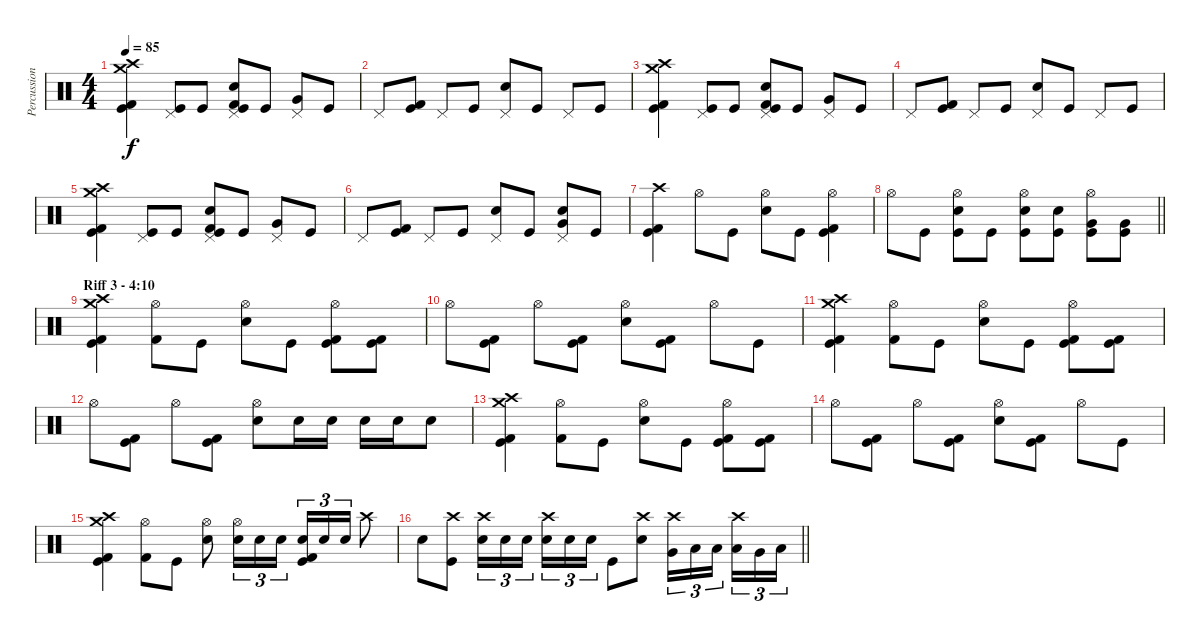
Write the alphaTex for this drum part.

\track ("Percussion" "Percussion") {instrument percussion}
\staff {score}
\articulation defaults
\ts (4 4)
\tempo 85
\clef neutral
\ks c
("Kick (hit)" "Kick (hit) 2" "Crash high (hit)" "Crash medium (hit)").4{dy f} ("Kick (hit)" "Pedal Hi-Hat (hit)").8 "Kick (hit)".8 ("Kick (hit)" "Kick (hit) 2" "Snare (hit) 2" "Pedal Hi-Hat (hit)").8 "Kick (hit)".8 ("Very Low Tom (hit)" "Pedal Hi-Hat (hit)").8 "Kick (hit)".8 |
"Pedal Hi-Hat (hit)".8 ("Kick (hit)" "Kick (hit) 2").8 "Pedal Hi-Hat (hit)".8 "Kick (hit)".8 ("Snare (hit) 2" "Pedal Hi-Hat (hit)").8 "Kick (hit)".8 "Pedal Hi-Hat (hit)".8 "Kick (hit)".8 |
("Kick (hit)" "Kick (hit) 2" "Crash high (hit)" "Crash medium (hit)").4 ("Kick (hit)" "Pedal Hi-Hat (hit)").8 "Kick (hit)".8 ("Kick (hit)" "Kick (hit) 2" "Snare (hit) 2" "Pedal Hi-Hat (hit)").8 "Kick (hit)".8 ("Very Low Tom (hit)" "Pedal Hi-Hat (hit)").8 "Kick (hit)".8 |
"Pedal Hi-Hat (hit)".8 ("Kick (hit)" "Kick (hit) 2").8 "Pedal Hi-Hat (hit)".8 "Kick (hit)".8 ("Snare (hit) 2" "Pedal Hi-Hat (hit)").8 "Kick (hit)".8 "Pedal Hi-Hat (hit)".8 "Kick (hit)".8 |
("Kick (hit)" "Kick (hit) 2" "Crash high (hit)" "Crash medium (hit)").4 ("Kick (hit)" "Pedal Hi-Hat (hit)").8 "Kick (hit)".8 ("Kick (hit)" "Kick (hit) 2" "Snare (hit) 2" "Pedal Hi-Hat (hit)").8 "Kick (hit)".8 ("Very Low Tom (hit)" "Pedal Hi-Hat (hit)").8 "Kick (hit)".8 |
"Pedal Hi-Hat (hit)".8 ("Kick (hit)" "Kick (hit) 2").8 "Pedal Hi-Hat (hit)".8 "Kick (hit)".8 ("Snare (hit) 2" "Pedal Hi-Hat (hit)").8 "Kick (hit)".8 ("Very Low Tom (hit)" "Snare (hit) 2" "Pedal Hi-Hat (hit)").8 "Kick (hit)".8 |
("Kick (hit)" "Kick (hit) 2" "Crash high (hit)").4 "Hi-Hat (open)".8 "Kick (hit)".8 ("Snare (hit) 2" "Hi-Hat (open)").8 "Kick (hit)".8 ("Kick (hit)" "Kick (hit) 2" "Hi-Hat (open)").4 |
\barLineRight lightlight "Hi-Hat (open)".8 "Kick (hit)".8
("Kick (hit)" "Snare (hit) 2" "Hi-Hat (open)").8 "Kick (hit)".8 ("Kick (hit)" "Snare (hit) 2" "Hi-Hat (open)").8 ("Kick (hit)" "Snare (hit) 2").8 ("Kick (hit)" "Very Low Tom (hit)" "Hi-Hat (open)").8 ("Kick (hit)" "Very Low Tom (hit)").8 |
\section ("" "Riff 3 - 4:10")
("Kick (hit)" "Kick (hit) 2" "Crash high (hit)" "Crash medium (hit)").4 ("Kick (hit) 2" "Hi-Hat (open)").8 "Kick (hit)".8 ("Snare (hit) 2" "Hi-Hat (open)").8 "Kick (hit)".8 ("Kick (hit)" "Kick (hit) 2" "Hi-Hat (open)").8 ("Kick (hit)" "Kick (hit) 2").8 |
"Hi-Hat (open)".8 ("Kick (hit)" "Kick (hit) 2").8 "Hi-Hat (open)".8 ("Kick (hit)" "Kick (hit) 2").8 ("Snare (hit) 2" "Hi-Hat (open)").8 ("Kick (hit)" "Kick (hit) 2").8 "Hi-Hat (open)".8 "Kick (hit)".8 |
("Kick (hit)" "Kick (hit) 2" "Crash high (hit)" "Crash medium (hit)").4 ("Kick (hit) 2" "Hi-Hat (open)").8 "Kick (hit)".8 ("Snare (hit) 2" "Hi-Hat (open)").8 "Kick (hit)".8 ("Kick (hit)" "Kick (hit) 2" "Hi-Hat (open)").8 ("Kick (hit)" "Kick (hit) 2").8 |
"Hi-Hat (open)".8 ("Kick (hit)" "Kick (hit) 2").8 "Hi-Hat (open)".8 ("Kick (hit)" "Kick (hit) 2").8 ("Snare (hit) 2" "Hi-Hat (open)").8 "Snare (hit) 2".16 "Snare (hit) 2".16 "Snare (hit) 2".16 "Snare (hit) 2".16 "Snare (hit) 2".8 |
("Kick (hit)" "Kick (hit) 2" "Crash high (hit)" "Crash medium (hit)").4 ("Kick (hit) 2" "Hi-Hat (open)").8 "Kick (hit)".8 ("Snare (hit) 2" "Hi-Hat (open)").8 "Kick (hit)".8 ("Kick (hit)" "Kick (hit) 2" "Hi-Hat (open)").8 ("Kick (hit)" "Kick (hit) 2").8 |
"Hi-Hat (open)".8 ("Kick (hit)" "Kick (hit) 2").8 "Hi-Hat (open)".8 ("Kick (hit)" "Kick (hit) 2").8 ("Snare (hit) 2" "Hi-Hat (open)").8 ("Kick (hit)" "Kick (hit) 2").8 "Hi-Hat (open)".8 "Kick (hit)".8 |
("Kick (hit)" "Kick (hit) 2" "Crash high (hit)" "Crash medium (hit)").4 ("Kick (hit) 2" "Hi-Hat (open)").8 "Kick (hit)".8 ("Snare (hit) 2" "Hi-Hat (open)").8 ("Snare (hit) 2" "Hi-Hat (open)").16{tu (3 2)} "Snare (hit) 2".16{tu (3 2)} "Snare (hit) 2".16{tu (3 2)} ("Kick (hit)" "Kick (hit) 2" "Snare (hit) 2").16{tu (3 2)} "Snare (hit) 2".16{tu (3 2)} "Snare (hit) 2".16{tu (3 2)} "Crash high (hit)".8 |
\barLineRight lightlight "Snare (hit) 2".8
("Kick (hit)" "Crash high (hit)").8 ("Snare (hit) 2" "Crash high (hit)").16{tu (3 2)} "Snare (hit) 2".16{tu (3 2)} "Snare (hit) 2".16{tu (3 2) beam splitsecondary} ("Snare (hit) 2" "Crash high (hit)").16{tu (3 2)} "Snare (hit) 2".16{tu (3 2)} "Snare (hit) 2".16{tu (3 2)} "Kick (hit)".8 ("Snare (hit) 2" "Crash high (hit)").8 ("Very Low Tom (hit)" "Crash high (hit)").16{tu (3 2)} "Low Floor Tom (hit)".16{tu (3 2)} "Low Tom (hit)".16{tu (3 2) beam splitsecondary} ("Low Floor Tom (hit)" "Crash high (hit)").16{tu (3 2)} "Very Low Tom (hit)".16{tu (3 2)} "Low Tom (hit)".16{tu (3 2)}
